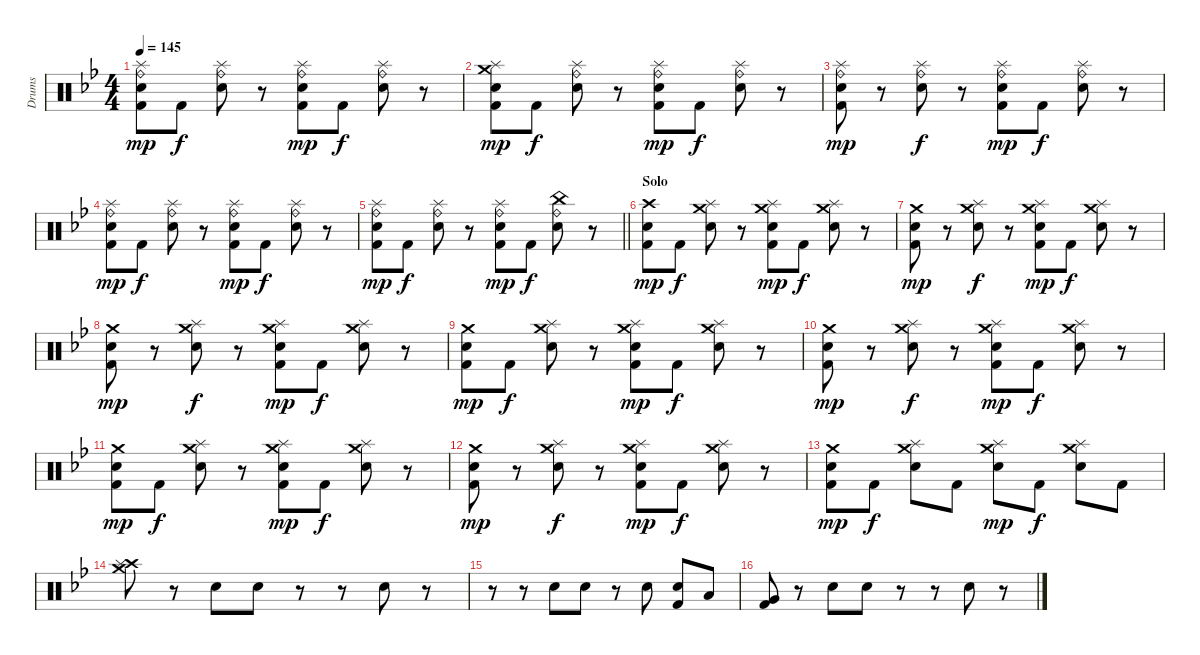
\track ("Drums" "Drums") {instrument percussion}
\staff {score}
\articulation defaults
\ts (4 4)
\tempo 145
\clef neutral
\ks bb
("Ride (bell)" "Splash (hit)" "Electric Snare (hit)" "Kick (hit) 2").8{dy mp} "Kick (hit) 2".8{dy f} ("Ride (bell)" "Splash (hit)" "Electric Snare (hit)").8 r.8 ("Ride (bell)" "Splash (hit)" "Electric Snare (hit)" "Kick (hit) 2").8{dy mp} "Kick (hit) 2".8{dy f} ("Ride (bell)" "Splash (hit)" "Electric Snare (hit)").8 r.8 |
("Crash medium (hit)" "Splash (hit)" "Electric Snare (hit)" "Kick (hit) 2").8{dy mp} "Kick (hit) 2".8{dy f} ("Ride (bell)" "Splash (hit)" "Electric Snare (hit)").8 r.8 ("Ride (bell)" "Splash (hit)" "Electric Snare (hit)" "Kick (hit) 2").8{dy mp} "Kick (hit) 2".8{dy f} ("Ride (bell)" "Splash (hit)" "Electric Snare (hit)").8 r.8 |
("Ride (bell)" "Splash (hit)" "Electric Snare (hit)" "Kick (hit) 2").8{dy mp} r.8 ("Ride (bell)" "Splash (hit)" "Electric Snare (hit)").8{dy f} r.8 ("Ride (bell)" "Splash (hit)" "Electric Snare (hit)" "Kick (hit) 2").8{dy mp} "Kick (hit) 2".8{dy f} ("Ride (bell)" "Splash (hit)" "Electric Snare (hit)").8 r.8 |
("Ride (bell)" "Splash (hit)" "Electric Snare (hit)" "Kick (hit) 2").8{dy mp} "Kick (hit) 2".8{dy f} ("Ride (bell)" "Splash (hit)" "Electric Snare (hit)").8 r.8 ("Ride (bell)" "Splash (hit)" "Electric Snare (hit)" "Kick (hit) 2").8{dy mp} "Kick (hit) 2".8{dy f} ("Ride (bell)" "Splash (hit)" "Electric Snare (hit)").8 r.8 |
\barLineRight lightlight
("Ride (bell)" "Splash (hit)" "Electric Snare (hit)" "Kick (hit) 2").8{dy mp} "Kick (hit) 2".8{dy f} ("Ride (bell)" "Splash (hit)" "Electric Snare (hit)").8 r.8 ("Ride (bell)" "Splash (hit)" "Electric Snare (hit)" "Kick (hit) 2").8{dy mp} "Kick (hit) 2".8{dy f} ("Ride (bell)" "China (hit)" "Electric Snare (hit)").8 r.8 |
\section ("" "Solo")
("Crash high (hit)" "Electric Snare (hit)" "Kick (hit) 2").8{dy mp} "Kick (hit) 2".8{dy f} ("Crash medium (hit)" "Splash (hit)" "Electric Snare (hit)").8 r.8 ("Crash medium (hit)" "Splash (hit)" "Electric Snare (hit)" "Kick (hit) 2").8{dy mp} "Kick (hit) 2".8{dy f} ("Crash medium (hit)" "Splash (hit)" "Electric Snare (hit)").8 r.8 |
("Crash medium (hit)" "Electric Snare (hit)" "Kick (hit) 2").8{dy mp} r.8 ("Crash medium (hit)" "Splash (hit)" "Electric Snare (hit)").8{dy f} r.8 ("Crash medium (hit)" "Splash (hit)" "Electric Snare (hit)" "Kick (hit) 2").8{dy mp} "Kick (hit) 2".8{dy f} ("Crash medium (hit)" "Splash (hit)" "Electric Snare (hit)").8 r.8 |
("Crash medium (hit)" "Electric Snare (hit)" "Kick (hit) 2").8{dy mp} r.8 ("Crash medium (hit)" "Splash (hit)" "Electric Snare (hit)").8{dy f} r.8 ("Crash medium (hit)" "Splash (hit)" "Electric Snare (hit)" "Kick (hit) 2").8{dy mp} "Kick (hit) 2".8{dy f} ("Crash medium (hit)" "Splash (hit)" "Electric Snare (hit)").8 r.8 |
("Crash medium (hit)" "Electric Snare (hit)" "Kick (hit) 2").8{dy mp} "Kick (hit) 2".8{dy f} ("Crash medium (hit)" "Splash (hit)" "Electric Snare (hit)").8 r.8 ("Crash medium (hit)" "Splash (hit)" "Electric Snare (hit)" "Kick (hit) 2").8{dy mp} "Kick (hit) 2".8{dy f} ("Crash medium (hit)" "Splash (hit)" "Electric Snare (hit)").8 r.8 |
("Crash medium (hit)" "Electric Snare (hit)" "Kick (hit) 2").8{dy mp} r.8 ("Crash medium (hit)" "Splash (hit)" "Electric Snare (hit)").8{dy f} r.8 ("Crash medium (hit)" "Splash (hit)" "Electric Snare (hit)" "Kick (hit) 2").8{dy mp} "Kick (hit) 2".8{dy f} ("Crash medium (hit)" "Splash (hit)" "Electric Snare (hit)").8 r.8 |
("Crash medium (hit)" "Electric Snare (hit)" "Kick (hit) 2").8{dy mp} "Kick (hit) 2".8{dy f} ("Crash medium (hit)" "Splash (hit)" "Electric Snare (hit)").8 r.8 ("Crash medium (hit)" "Splash (hit)" "Electric Snare (hit)" "Kick (hit) 2").8{dy mp} "Kick (hit) 2".8{dy f} ("Crash medium (hit)" "Splash (hit)" "Electric Snare (hit)").8 r.8 |
("Crash medium (hit)" "Electric Snare (hit)" "Kick (hit) 2").8{dy mp} r.8 ("Crash medium (hit)" "Splash (hit)" "Electric Snare (hit)").8{dy f} r.8 ("Crash medium (hit)" "Splash (hit)" "Electric Snare (hit)" "Kick (hit) 2").8{dy mp} "Kick (hit) 2".8{dy f} ("Crash medium (hit)" "Splash (hit)" "Electric Snare (hit)").8 r.8 |
("Crash medium (hit)" "Electric Snare (hit)" "Kick (hit) 2").8{dy mp} "Kick (hit) 2".8{dy f} ("Crash medium (hit)" "Splash (hit)" "Electric Snare (hit)").8 "Kick (hit) 2".8 ("Crash medium (hit)" "Splash (hit)" "Electric Snare (hit)").8{dy mp} "Kick (hit) 2".8{dy f} ("Crash medium (hit)" "Splash (hit)" "Electric Snare (hit)").8 "Kick (hit) 2".8 |
("Crash high (hit)" "Crash medium (hit)" "Splash (hit)").8 r.8 "Hand Clap (hit)".8 "Hand Clap (hit)".8 r.8 r.8 "Hand Clap (hit)".8 r.8 |
r.8 r.8 "Hand Clap (hit)".8 "Hand Clap (hit)".8 r.8 "Electric Snare (hit)".8 ("Hand Clap (hit)" "Kick (hit) 2").8 "Low Tom (hit)".8 |
("Very Low Tom (hit)" "Kick (hit) 2").8 r.8 "Hand Clap (hit)".8 "Hand Clap (hit)".8 r.8 r.8 "Hand Clap (hit)".8 r.8
